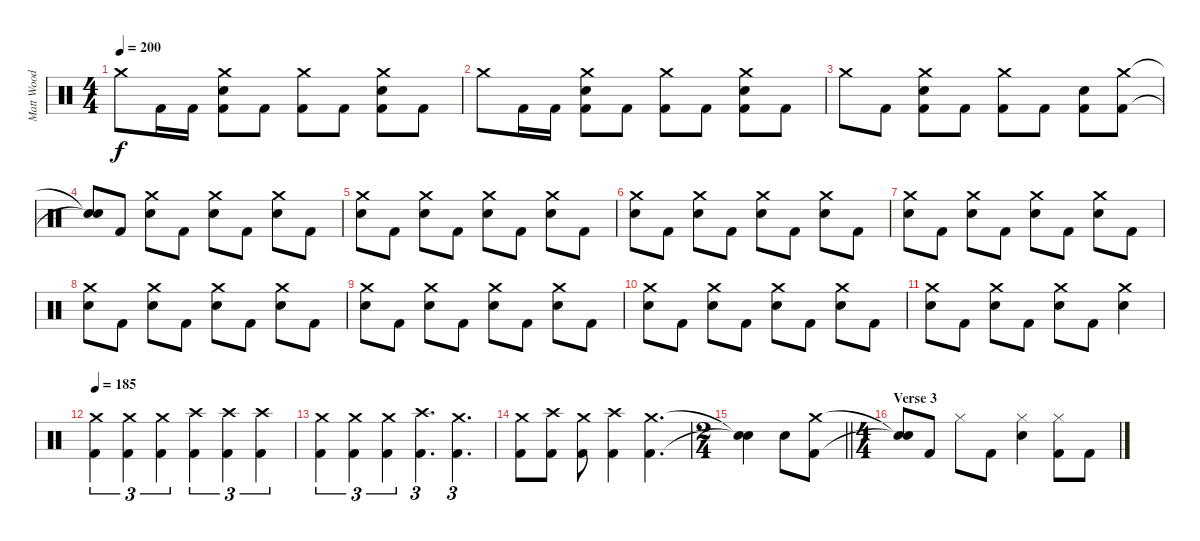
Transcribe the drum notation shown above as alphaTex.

\track ("Matt Wood" "Matt Wood") {instrument percussion}
\staff {score}
\articulation defaults
\ts (4 4)
\tempo 200
\clef neutral
\ks c "Crash medium (hit)".8{dy f} "Kick (hit) 2".16 "Kick (hit) 2".16
("Crash medium (hit)" "Snare (hit) 2" "Kick (hit) 2").8 "Kick (hit) 2".8 ("Crash medium (hit)" "Kick (hit) 2").8 "Kick (hit) 2".8 ("Crash medium (hit)" "Snare (hit) 2" "Kick (hit) 2").8 "Kick (hit) 2".8 |
"Crash medium (hit)".8 "Kick (hit) 2".16 "Kick (hit) 2".16 ("Crash medium (hit)" "Snare (hit) 2" "Kick (hit) 2").8 "Kick (hit) 2".8 ("Crash medium (hit)" "Kick (hit) 2").8 "Kick (hit) 2".8 ("Crash medium (hit)" "Snare (hit) 2" "Kick (hit) 2").8 "Kick (hit) 2".8 |
"Crash medium (hit)".8 "Kick (hit) 2".8 ("Crash medium (hit)" "Snare (hit) 2" "Kick (hit) 2").8 "Kick (hit) 2".8 ("Crash medium (hit)" "Kick (hit) 2").8 "Kick (hit) 2".8 ("Snare (hit) 2" "Kick (hit) 2").8 ("Crash medium (hit)" "Kick (hit) 2").8 |
("Snare (hit)"{t} "Snare (hit)"{t}).8 "Kick (hit) 2".8 ("Crash medium (hit)" "Snare (hit) 2").8 "Kick (hit) 2".8 ("Crash medium (hit)" "Snare (hit) 2").8 "Kick (hit) 2".8 ("Crash medium (hit)" "Snare (hit) 2").8 "Kick (hit) 2".8 |
("Crash medium (hit)" "Snare (hit) 2").8 "Kick (hit) 2".8 ("Crash medium (hit)" "Snare (hit) 2").8 "Kick (hit) 2".8 ("Crash medium (hit)" "Snare (hit) 2").8 "Kick (hit) 2".8 ("Crash medium (hit)" "Snare (hit) 2").8 "Kick (hit) 2".8 |
("Crash medium (hit)" "Snare (hit) 2").8 "Kick (hit) 2".8 ("Crash medium (hit)" "Snare (hit) 2").8 "Kick (hit) 2".8 ("Crash medium (hit)" "Snare (hit) 2").8 "Kick (hit) 2".8 ("Crash medium (hit)" "Snare (hit) 2").8 "Kick (hit) 2".8 |
("Crash medium (hit)" "Snare (hit) 2").8 "Kick (hit) 2".8 ("Crash medium (hit)" "Snare (hit) 2").8 "Kick (hit) 2".8 ("Crash medium (hit)" "Snare (hit) 2").8 "Kick (hit) 2".8 ("Crash medium (hit)" "Snare (hit) 2").8 "Kick (hit) 2".8 |
("Crash medium (hit)" "Snare (hit) 2").8 "Kick (hit) 2".8 ("Crash medium (hit)" "Snare (hit) 2").8 "Kick (hit) 2".8 ("Crash medium (hit)" "Snare (hit) 2").8 "Kick (hit) 2".8 ("Crash medium (hit)" "Snare (hit) 2").8 "Kick (hit) 2".8 |
("Crash medium (hit)" "Snare (hit) 2").8 "Kick (hit) 2".8 ("Crash medium (hit)" "Snare (hit) 2").8 "Kick (hit) 2".8 ("Crash medium (hit)" "Snare (hit) 2").8 "Kick (hit) 2".8 ("Crash medium (hit)" "Snare (hit) 2").8 "Kick (hit) 2".8 |
("Crash medium (hit)" "Snare (hit) 2").8 "Kick (hit) 2".8 ("Crash medium (hit)" "Snare (hit) 2").8 "Kick (hit) 2".8 ("Crash medium (hit)" "Snare (hit) 2").8 "Kick (hit) 2".8 ("Crash medium (hit)" "Snare (hit) 2").8 "Kick (hit) 2".8 |
("Crash medium (hit)" "Snare (hit) 2").8 "Kick (hit) 2".8 ("Crash medium (hit)" "Snare (hit) 2").8 "Kick (hit) 2".8 ("Crash medium (hit)" "Snare (hit) 2").8 "Kick (hit) 2".8 ("Crash medium (hit)" "Snare (hit) 2").4 |
\tempo 185
("Crash medium (hit)" "Kick (hit) 2").4{tu (3 2)} ("Crash medium (hit)" "Kick (hit) 2").4{tu (3 2)} ("Crash medium (hit)" "Kick (hit) 2").4{tu (3 2)} ("Crash high (hit)" "Kick (hit) 2").4{tu (3 2)} ("Crash high (hit)" "Kick (hit) 2").4{tu (3 2)} ("Crash high (hit)" "Kick (hit) 2").4{tu (3 2)} |
("Crash medium (hit)" "Kick (hit) 2").4{tu (3 2)} ("Crash medium (hit)" "Kick (hit) 2").4{tu (3 2)} ("Crash medium (hit)" "Kick (hit) 2").4{tu (3 2)} ("Crash high (hit)" "Kick (hit) 2").4{d tu (3 2)} ("Crash medium (hit)" "Kick (hit) 2").4{d tu (3 2)} |
("Crash medium (hit)" "Kick (hit) 2").8 ("Crash high (hit)" "Kick (hit) 2").8 ("Crash medium (hit)" "Kick (hit) 2").8 ("Crash high (hit)" "Kick (hit) 2").4 ("Crash medium (hit)" "Kick (hit) 2").4{d} |
\ts (2 4)
\barLineRight lightlight
("Snare (hit)"{t} "Snare (hit)"{t}).4 "Snare (hit) 2".8 ("Crash medium (hit)" "Kick (hit) 2").8 |
\ts (4 4)
\section ("" "Verse 3")
("Snare (hit)"{t} "Snare (hit)"{t}).8 "Kick (hit) 2".8 "Hi-Hat (closed)".8 "Kick (hit) 2".8 ("Hi-Hat (closed)" "Snare (hit) 2").4 ("Hi-Hat (closed)" "Kick (hit) 2").8 "Kick (hit) 2".8
